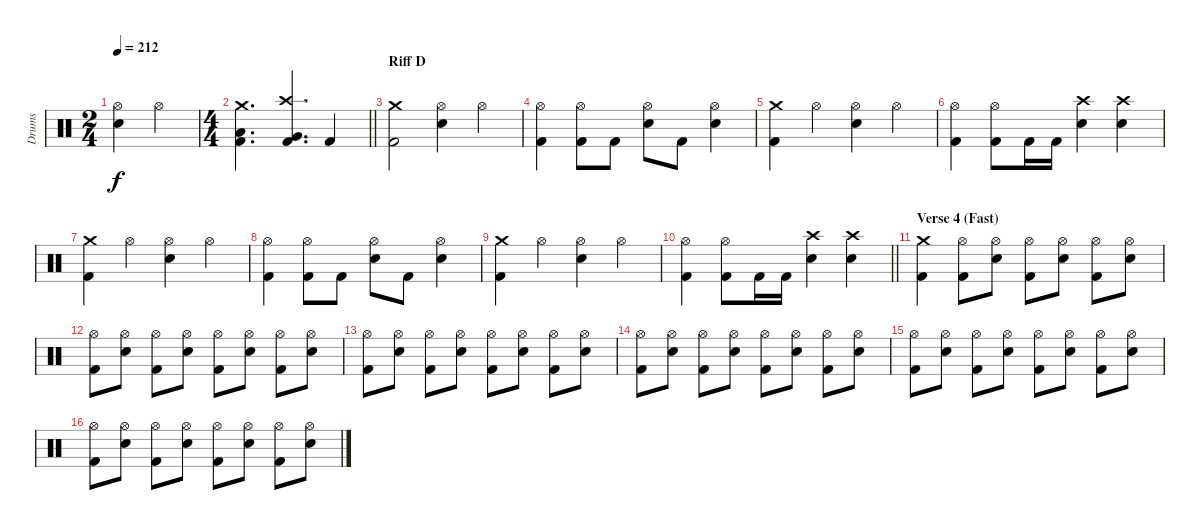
\track ("Drums" "Drums") {instrument percussion}
\staff {score}
\articulation defaults
\ts (2 4)
\tempo 212
\clef neutral
\ks c
("Hi-Hat (open)" "Electric Snare (hit)").4{dy f} "Hi-Hat (open)".4 |
\ts (4 4)
\barLineRight lightlight
("Crash medium (hit)" "Low Tom (hit)" "Kick (hit) 2").4{d} ("Crash high (hit)" "Very Low Tom (hit)" "Kick (hit) 2").4{d} "Kick (hit) 2".4 |
\section ("" "Riff D")
("Crash medium (hit)" "Kick (hit) 2").2 ("Hi-Hat (open)" "Electric Snare (hit)").4 "Hi-Hat (open)".4 |
("Hi-Hat (open)" "Kick (hit) 2").4 ("Hi-Hat (open)" "Kick (hit) 2").8 "Kick (hit) 2".8 ("Hi-Hat (open)" "Electric Snare (hit)").8 "Kick (hit) 2".8 ("Hi-Hat (open)" "Electric Snare (hit)").4 |
("Crash medium (hit)" "Kick (hit) 2").4 "Hi-Hat (open)".4 ("Hi-Hat (open)" "Electric Snare (hit)").4 "Hi-Hat (open)".4 |
("Hi-Hat (open)" "Kick (hit) 2").4 ("Hi-Hat (open)" "Kick (hit) 2").8 "Kick (hit) 2".16 "Kick (hit) 2".16 ("Crash high (hit)" "Electric Snare (hit)").4 ("Crash high (hit)" "Electric Snare (hit)").4 |
("Crash medium (hit)" "Kick (hit) 2").4 "Hi-Hat (open)".4 ("Hi-Hat (open)" "Electric Snare (hit)").4 "Hi-Hat (open)".4 |
("Hi-Hat (open)" "Kick (hit) 2").4 ("Hi-Hat (open)" "Kick (hit) 2").8 "Kick (hit) 2".8 ("Hi-Hat (open)" "Electric Snare (hit)").8 "Kick (hit) 2".8 ("Hi-Hat (open)" "Electric Snare (hit)").4 |
("Crash medium (hit)" "Kick (hit) 2").4 "Hi-Hat (open)".4 ("Hi-Hat (open)" "Electric Snare (hit)").4 "Hi-Hat (open)".4 |
\barLineRight lightlight
("Hi-Hat (open)" "Kick (hit) 2").4 ("Hi-Hat (open)" "Kick (hit) 2").8 "Kick (hit) 2".16 "Kick (hit) 2".16 ("Crash high (hit)" "Electric Snare (hit)").4 ("Crash high (hit)" "Electric Snare (hit)").4 |
\section ("" "Verse 4 (Fast)")
("Crash medium (hit)" "Kick (hit) 2").4 ("Hi-Hat (open)" "Kick (hit) 2").8 ("Hi-Hat (open)" "Electric Snare (hit)").8 ("Hi-Hat (open)" "Kick (hit) 2").8 ("Hi-Hat (open)" "Electric Snare (hit)").8 ("Hi-Hat (open)" "Kick (hit) 2").8 ("Hi-Hat (open)" "Electric Snare (hit)").8 |
("Hi-Hat (open)" "Kick (hit) 2").8 ("Hi-Hat (open)" "Electric Snare (hit)").8 ("Hi-Hat (open)" "Kick (hit) 2").8 ("Hi-Hat (open)" "Electric Snare (hit)").8 ("Hi-Hat (open)" "Kick (hit) 2").8 ("Hi-Hat (open)" "Electric Snare (hit)").8 ("Hi-Hat (open)" "Kick (hit) 2").8 ("Hi-Hat (open)" "Electric Snare (hit)").8 |
("Hi-Hat (open)" "Kick (hit) 2").8 ("Hi-Hat (open)" "Electric Snare (hit)").8 ("Hi-Hat (open)" "Kick (hit) 2").8 ("Hi-Hat (open)" "Electric Snare (hit)").8 ("Hi-Hat (open)" "Kick (hit) 2").8 ("Hi-Hat (open)" "Electric Snare (hit)").8 ("Hi-Hat (open)" "Kick (hit) 2").8 ("Hi-Hat (open)" "Electric Snare (hit)").8 |
("Hi-Hat (open)" "Kick (hit) 2").8 ("Hi-Hat (open)" "Electric Snare (hit)").8 ("Hi-Hat (open)" "Kick (hit) 2").8 ("Hi-Hat (open)" "Electric Snare (hit)").8 ("Hi-Hat (open)" "Kick (hit) 2").8 ("Hi-Hat (open)" "Electric Snare (hit)").8 ("Hi-Hat (open)" "Kick (hit) 2").8 ("Hi-Hat (open)" "Electric Snare (hit)").8 |
("Hi-Hat (open)" "Kick (hit) 2").8 ("Hi-Hat (open)" "Electric Snare (hit)").8 ("Hi-Hat (open)" "Kick (hit) 2").8 ("Hi-Hat (open)" "Electric Snare (hit)").8 ("Hi-Hat (open)" "Kick (hit) 2").8 ("Hi-Hat (open)" "Electric Snare (hit)").8 ("Hi-Hat (open)" "Kick (hit) 2").8 ("Hi-Hat (open)" "Electric Snare (hit)").8 |
("Hi-Hat (open)" "Kick (hit) 2").8 ("Hi-Hat (open)" "Electric Snare (hit)").8 ("Hi-Hat (open)" "Kick (hit) 2").8 ("Hi-Hat (open)" "Electric Snare (hit)").8 ("Hi-Hat (open)" "Kick (hit) 2").8 ("Hi-Hat (open)" "Electric Snare (hit)").8 ("Hi-Hat (open)" "Kick (hit) 2").8 ("Hi-Hat (open)" "Electric Snare (hit)").8
